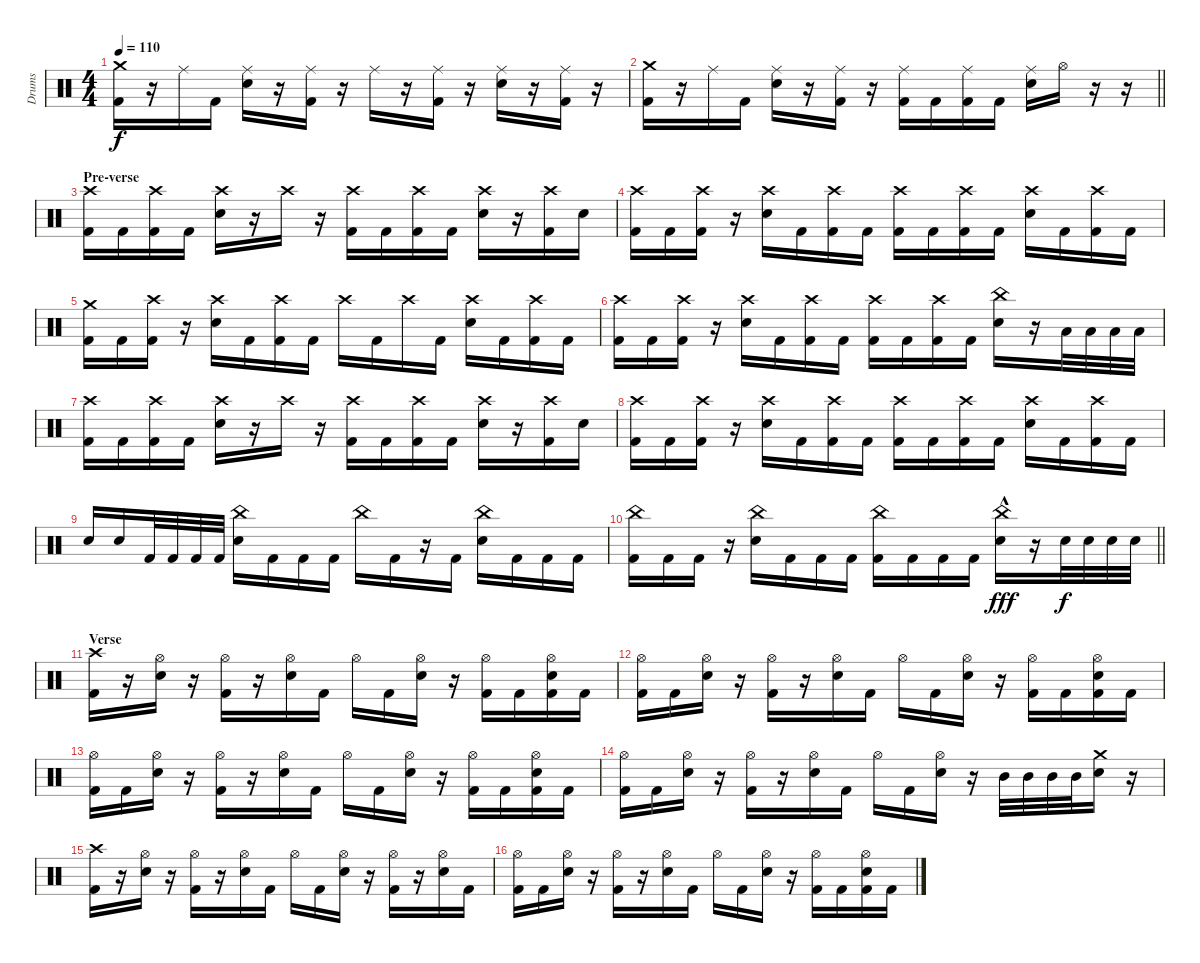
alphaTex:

\track ("Drums" "Drums") {instrument percussion}
\staff {score}
\articulation defaults
\ts (4 4)
\tempo 110
\clef neutral
\ks c
("Crash medium (hit)" "Kick (hit) 2").16{dy f} r.16 "Ride (middle)".16 "Kick (hit) 2".16 ("Electric Snare (hit)" "Ride (middle)").16 r.16 ("Ride (middle)" "Kick (hit) 2").16 r.16 "Ride (middle)".16 r.16 ("Ride (middle)" "Kick (hit) 2").16 r.16 ("Electric Snare (hit)" "Ride (middle)").16 r.16 ("Ride (middle)" "Kick (hit) 2").16 r.16 |
\barLineRight lightlight
("Crash medium (hit)" "Kick (hit) 2").16 r.16 "Ride (middle)".16 "Kick (hit) 2".16 ("Electric Snare (hit)" "Ride (middle)").16 r.16 ("Ride (middle)" "Kick (hit) 2").16 r.16 ("Kick (hit) 2" "Ride (middle)").16 "Kick (hit) 2".16 ("Ride (middle)" "Kick (hit) 2").16 "Kick (hit) 2".16 ("Electric Snare (hit)" "Ride (middle)").16 "Hi-Hat (open)".16 r.16 r.16 |
\section ("" "Pre-verse")
("Kick (hit) 2" "Crash high (hit)").16 "Kick (hit) 2".16 ("Kick (hit) 2" "Crash high (hit)").16 "Kick (hit) 2".16 ("Crash high (hit)" "Electric Snare (hit)").16 r.16 "Crash high (hit)".16 r.16 ("Kick (hit) 2" "Crash high (hit)").16 "Kick (hit) 2".16 ("Kick (hit) 2" "Crash high (hit)").16 "Kick (hit) 2".16 ("Crash high (hit)" "Electric Snare (hit)").16 r.16 ("Kick (hit) 2" "Crash high (hit)").16 "Electric Snare (hit)".16 |
("Kick (hit) 2" "Crash high (hit)").16 "Kick (hit) 2".16 ("Kick (hit) 2" "Crash high (hit)").16 r.16 ("Crash high (hit)" "Electric Snare (hit)").16 "Kick (hit) 2".16 ("Kick (hit) 2" "Crash high (hit)").16 "Kick (hit) 2".16 ("Kick (hit) 2" "Crash high (hit)").16 "Kick (hit) 2".16 ("Kick (hit) 2" "Crash high (hit)").16 "Kick (hit) 2".16 ("Crash high (hit)" "Electric Snare (hit)").16 "Kick (hit) 2".16 ("Kick (hit) 2" "Crash high (hit)").16 "Kick (hit) 2".16 |
("Kick (hit) 2" "Crash medium (hit)").16 "Kick (hit) 2".16 ("Kick (hit) 2" "Crash high (hit)").16 r.16 ("Crash high (hit)" "Electric Snare (hit)").16 "Kick (hit) 2".16 ("Kick (hit) 2" "Crash high (hit)").16 "Kick (hit) 2".16 "Crash high (hit)".16 "Kick (hit) 2".16 "Crash high (hit)".16 "Kick (hit) 2".16 ("Crash high (hit)" "Electric Snare (hit)").16 "Kick (hit) 2".16 ("Kick (hit) 2" "Crash high (hit)").16 "Kick (hit) 2".16 |
("Kick (hit) 2" "Crash high (hit)").16 "Kick (hit) 2".16 ("Kick (hit) 2" "Crash high (hit)").16 r.16 ("Crash high (hit)" "Electric Snare (hit)").16 "Kick (hit) 2".16 ("Kick (hit) 2" "Crash high (hit)").16 "Kick (hit) 2".16 ("Kick (hit) 2" "Crash high (hit)").16 "Kick (hit) 2".16 ("Kick (hit) 2" "Crash high (hit)").16 "Kick (hit) 2".16 ("China (hit)" "Electric Snare (hit)").16 r.16 "Low Tom (hit)".32 "Low Tom (hit)".32 "Low Tom (hit)".32 "Low Tom (hit)".32 |
("Kick (hit) 2" "Crash high (hit)").16 "Kick (hit) 2".16 ("Kick (hit) 2" "Crash high (hit)").16 "Kick (hit) 2".16 ("Crash high (hit)" "Electric Snare (hit)").16 r.16 "Crash high (hit)".16 r.16 ("Kick (hit) 2" "Crash high (hit)").16 "Kick (hit) 2".16 ("Kick (hit) 2" "Crash high (hit)").16 "Kick (hit) 2".16 ("Crash high (hit)" "Electric Snare (hit)").16 r.16 ("Kick (hit) 2" "Crash high (hit)").16 "Electric Snare (hit)".16 |
("Kick (hit) 2" "Crash high (hit)").16 "Kick (hit) 2".16 ("Kick (hit) 2" "Crash high (hit)").16 r.16 ("Crash high (hit)" "Electric Snare (hit)").16 "Kick (hit) 2".16 ("Kick (hit) 2" "Crash high (hit)").16 "Kick (hit) 2".16 ("Kick (hit) 2" "Crash high (hit)").16 "Kick (hit) 2".16 ("Kick (hit) 2" "Crash high (hit)").16 "Kick (hit) 2".16 ("Crash high (hit)" "Electric Snare (hit)").16 "Kick (hit) 2".16 ("Kick (hit) 2" "Crash high (hit)").16 "Kick (hit) 2".16 |
"Electric Snare (hit)".16 "Electric Snare (hit)".16 "Kick (hit) 2".32 "Kick (hit) 2".32 "Kick (hit) 2".32 "Kick (hit) 2".32 ("Electric Snare (hit)" "China (hit)").16 "Kick (hit) 2".16 "Kick (hit) 2".16 "Kick (hit) 2".16 "China (hit)".16 "Kick (hit) 2".16 r.16 "Kick (hit) 2".16 ("Electric Snare (hit)" "China (hit)").16 "Kick (hit) 2".16 "Kick (hit) 2".16 "Kick (hit) 2".16 |
\barLineRight lightlight
("Kick (hit) 2" "China (hit)").16 "Kick (hit) 2".16 "Kick (hit) 2".16 r.16 ("China (hit)" "Electric Snare (hit)").16 "Kick (hit) 2".16 "Kick (hit) 2".16 "Kick (hit) 2".16 ("Kick (hit) 2" "China (hit)").16 "Kick (hit) 2".16 "Kick (hit) 2".16 "Kick (hit) 2".16 ("China (hit)"{hac} "Electric Snare (hit)").16{dy fff} r.16 "Electric Snare (hit)".32{dy f} "Electric Snare (hit)".32 "Electric Snare (hit)".32 "Electric Snare (hit)".32 |
\section ("" "Verse")
("Kick (hit) 2" "Crash high (hit)").16 r.16 ("Hi-Hat (open)" "Electric Snare (hit)").16 r.16 ("Kick (hit) 2" "Hi-Hat (open)").16 r.16 ("Electric Snare (hit)" "Hi-Hat (open)").16 "Kick (hit) 2".16 "Hi-Hat (open)".16 "Kick (hit) 2".16 ("Electric Snare (hit)" "Hi-Hat (open)").16 r.16 ("Kick (hit) 2" "Hi-Hat (open)").16 "Kick (hit) 2".16 ("Kick (hit) 2" "Electric Snare (hit)" "Hi-Hat (open)").16 "Kick (hit) 2".16 |
("Kick (hit) 2" "Hi-Hat (open)").16 "Kick (hit) 2".16 ("Hi-Hat (open)" "Electric Snare (hit)").16 r.16 ("Kick (hit) 2" "Hi-Hat (open)").16 r.16 ("Electric Snare (hit)" "Hi-Hat (open)").16 "Kick (hit) 2".16 "Hi-Hat (open)".16 "Kick (hit) 2".16 ("Electric Snare (hit)" "Hi-Hat (open)").16 r.16 ("Kick (hit) 2" "Hi-Hat (open)").16 "Kick (hit) 2".16 ("Kick (hit) 2" "Electric Snare (hit)" "Hi-Hat (open)").16 "Kick (hit) 2".16 |
("Kick (hit) 2" "Hi-Hat (open)").16 "Kick (hit) 2".16 ("Hi-Hat (open)" "Electric Snare (hit)").16 r.16 ("Kick (hit) 2" "Hi-Hat (open)").16 r.16 ("Electric Snare (hit)" "Hi-Hat (open)").16 "Kick (hit) 2".16 "Hi-Hat (open)".16 "Kick (hit) 2".16 ("Electric Snare (hit)" "Hi-Hat (open)").16 r.16 ("Kick (hit) 2" "Hi-Hat (open)").16 "Kick (hit) 2".16 ("Kick (hit) 2" "Electric Snare (hit)" "Hi-Hat (open)").16 "Kick (hit) 2".16 |
("Kick (hit) 2" "Hi-Hat (open)").16 "Kick (hit) 2".16 ("Hi-Hat (open)" "Electric Snare (hit)").16 r.16 ("Kick (hit) 2" "Hi-Hat (open)").16 r.16 ("Electric Snare (hit)" "Hi-Hat (open)").16 "Kick (hit) 2".16 "Hi-Hat (open)".16 "Kick (hit) 2".16 ("Electric Snare (hit)" "Hi-Hat (open)").16 r.16 "Mid Tom (hit)".32 "Mid Tom (hit)".32 "Mid Tom (hit)".32 "Mid Tom (hit)".32 ("Crash medium (hit)" "Electric Snare (hit)").16 r.16 |
("Kick (hit) 2" "Crash high (hit)").16 r.16 ("Hi-Hat (open)" "Electric Snare (hit)").16 r.16 ("Kick (hit) 2" "Hi-Hat (open)").16 r.16 ("Electric Snare (hit)" "Hi-Hat (open)").16 "Kick (hit) 2".16 "Hi-Hat (open)".16 "Kick (hit) 2".16 ("Electric Snare (hit)" "Hi-Hat (open)").16 r.16 ("Kick (hit) 2" "Hi-Hat (open)").16 r.16 ("Electric Snare (hit)" "Hi-Hat (open)").16 "Kick (hit) 2".16 |
("Kick (hit) 2" "Hi-Hat (open)").16 "Kick (hit) 2".16 ("Hi-Hat (open)" "Electric Snare (hit)").16 r.16 ("Kick (hit) 2" "Hi-Hat (open)").16 r.16 ("Electric Snare (hit)" "Hi-Hat (open)").16 "Kick (hit) 2".16 "Hi-Hat (open)".16 "Kick (hit) 2".16 ("Electric Snare (hit)" "Hi-Hat (open)").16 r.16 ("Kick (hit) 2" "Hi-Hat (open)").16 "Kick (hit) 2".16 ("Kick (hit) 2" "Electric Snare (hit)" "Hi-Hat (open)").16 "Kick (hit) 2".16
